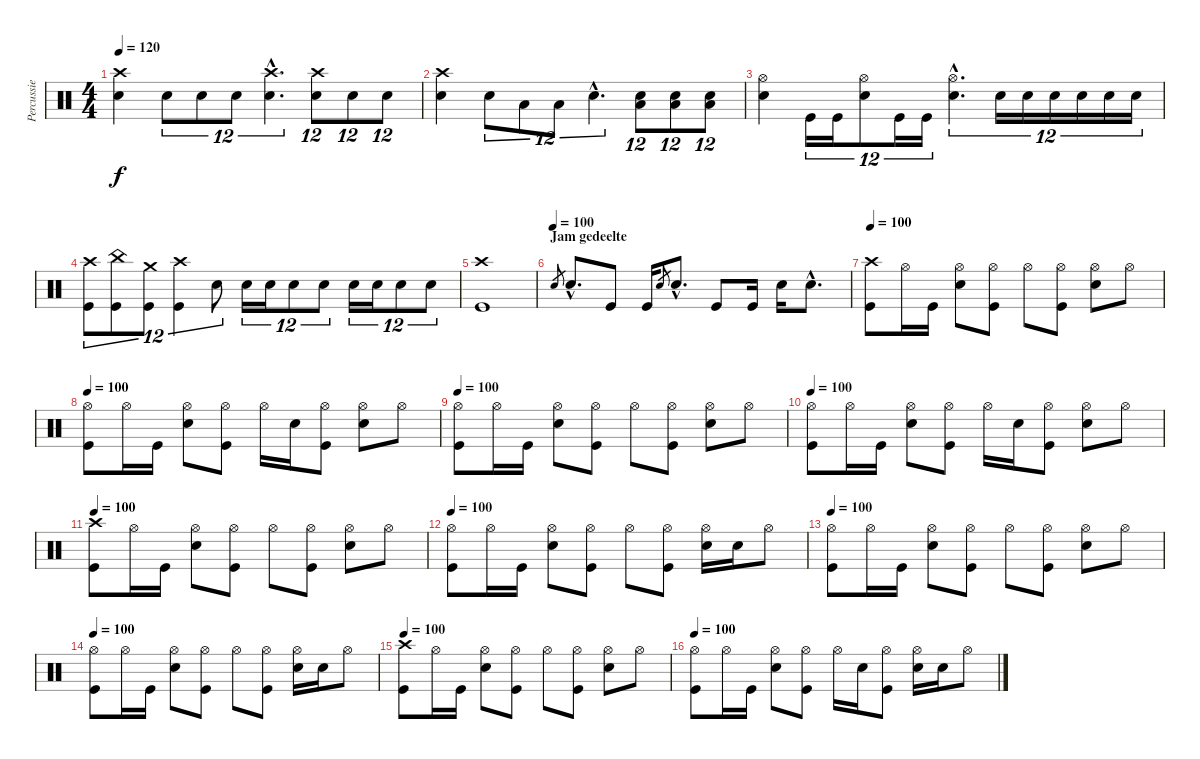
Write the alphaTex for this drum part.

\track ("Percussie" "Percussie") {instrument percussion}
\staff {score}
\articulation defaults
\ts (4 4)
\tempo 120
\clef neutral
\ks c
("Crash high (hit)" "Snare (hit) 2").4{dy f} "Snare (hit) 2".8{tu (12 8)} "Snare (hit) 2".8{tu (12 8)} "Snare (hit) 2".8{tu (12 8)} ("Crash high (hit)"{hac} "Snare (hit) 2"{hac}).4{d tu (12 8)} ("Crash high (hit)" "Snare (hit) 2").8{tu (12 8)} "Snare (hit) 2".8{tu (12 8)} "Snare (hit) 2".8{tu (12 8)} |
("Crash high (hit)" "Snare (hit) 2").4 "Snare (hit) 2".8{tu (12 8)} "Low Tom (hit)".8{tu (12 8)} "Low Tom (hit)".8{tu (12 8)} "Snare (hit) 2"{hac}.4{d tu (12 8)} ("Low Tom (hit)" "Snare (hit) 2").8{tu (12 8)} ("Low Tom (hit)" "Snare (hit) 2").8{tu (12 8)} ("Low Tom (hit)" "Snare (hit) 2").8{tu (12 8)} |
("Hi-Hat (open)" "Snare (hit) 2").4 "Kick (hit)".16{tu (12 8)} "Kick (hit)".16{tu (12 8)} ("Hi-Hat (open)" "Snare (hit) 2").8{tu (12 8)} "Kick (hit)".16{tu (12 8)} "Kick (hit)".16{tu (12 8)} ("Hi-Hat (open)"{hac} "Snare (hit) 2"{hac}).4{d tu (12 8)} "Snare (hit) 2".16{tu (12 8)} "Snare (hit) 2".16{tu (12 8)} "Snare (hit) 2".16{tu (12 8)} "Snare (hit) 2".16{tu (12 8)} "Snare (hit) 2".16{tu (12 8)} "Snare (hit) 2".16{tu (12 8)} |
("Crash high (hit)" "Kick (hit)").8{tu (12 8)} ("China (hit)" "Kick (hit)").8{tu (12 8)} ("Crash medium (hit)" "Kick (hit)").8{tu (12 8)} ("Crash high (hit)" "Kick (hit)").4{tu (12 8)} "Snare (hit) 2".8{tu (12 8)} "Snare (hit) 2".16{tu (12 8)} "Snare (hit) 2".16{tu (12 8)} "Snare (hit) 2".8{tu (12 8)} "Snare (hit) 2".8{tu (12 8)} "Snare (hit) 2".16{tu (12 8)} "Snare (hit) 2".16{tu (12 8)} "Snare (hit) 2".8{tu (12 8)} "Snare (hit) 2".8{tu (12 8)} |
("Crash high (hit)" "Kick (hit)").1 |
\section ("" "Jam gedeelte")
\tempo (100)
"Snare (hit) 2".8{gr} "Snare (hit) 2"{hac}.8{d} "Kick (hit)".8 "Kick (hit)".16 "Snare (hit) 2".8{gr} "Snare (hit) 2"{hac}.8{d} "Kick (hit)".8 "Kick (hit)".16 "Snare (hit) 2".16 "Snare (hit) 2"{hac}.8{d} |
\tempo 100
("Crash high (hit)" "Kick (hit)").8 "Hi-Hat (open)".16 "Kick (hit)".16 ("Hi-Hat (open)" "Snare (hit) 2").8 ("Hi-Hat (open)" "Kick (hit)").8 "Hi-Hat (open)".8 ("Hi-Hat (open)" "Kick (hit)").8 ("Hi-Hat (open)" "Snare (hit) 2").8 "Hi-Hat (open)".8 |
\tempo 100
("Hi-Hat (open)" "Kick (hit)").8 "Hi-Hat (open)".16 "Kick (hit)".16 ("Hi-Hat (open)" "Snare (hit) 2").8 ("Hi-Hat (open)" "Kick (hit)").8 "Hi-Hat (open)".16 "Snare (hit) 2".16 ("Hi-Hat (open)" "Kick (hit)").8 ("Hi-Hat (open)" "Snare (hit) 2").8 "Hi-Hat (open)".8 |
\tempo 100
("Hi-Hat (open)" "Kick (hit)").8 "Hi-Hat (open)".16 "Kick (hit)".16 ("Hi-Hat (open)" "Snare (hit) 2").8 ("Hi-Hat (open)" "Kick (hit)").8 "Hi-Hat (open)".8 ("Hi-Hat (open)" "Kick (hit)").8 ("Hi-Hat (open)" "Snare (hit) 2").8 "Hi-Hat (open)".8 |
\tempo 100
("Hi-Hat (open)" "Kick (hit)").8 "Hi-Hat (open)".16 "Kick (hit)".16 ("Hi-Hat (open)" "Snare (hit) 2").8 ("Hi-Hat (open)" "Kick (hit)").8 "Hi-Hat (open)".16 "Snare (hit) 2".16 ("Hi-Hat (open)" "Kick (hit)").8 ("Hi-Hat (open)" "Snare (hit) 2").8 "Hi-Hat (open)".8 |
\tempo 100
("Crash high (hit)" "Kick (hit)").8 "Hi-Hat (open)".16 "Kick (hit)".16 ("Hi-Hat (open)" "Snare (hit) 2").8 ("Hi-Hat (open)" "Kick (hit)").8 "Hi-Hat (open)".8 ("Hi-Hat (open)" "Kick (hit)").8 ("Hi-Hat (open)" "Snare (hit) 2").8 "Hi-Hat (open)".8 |
\tempo 100
("Hi-Hat (open)" "Kick (hit)").8 "Hi-Hat (open)".16 "Kick (hit)".16 ("Hi-Hat (open)" "Snare (hit) 2").8 ("Hi-Hat (open)" "Kick (hit)").8 "Hi-Hat (open)".8 ("Hi-Hat (open)" "Kick (hit)").8 ("Hi-Hat (open)" "Snare (hit) 2").16 "Snare (hit) 2".16 "Hi-Hat (open)".8 |
\tempo 100
("Hi-Hat (open)" "Kick (hit)").8 "Hi-Hat (open)".16 "Kick (hit)".16 ("Hi-Hat (open)" "Snare (hit) 2").8 ("Hi-Hat (open)" "Kick (hit)").8 "Hi-Hat (open)".8 ("Hi-Hat (open)" "Kick (hit)").8 ("Hi-Hat (open)" "Snare (hit) 2").8 "Hi-Hat (open)".8 |
\tempo 100
("Hi-Hat (open)" "Kick (hit)").8 "Hi-Hat (open)".16 "Kick (hit)".16 ("Hi-Hat (open)" "Snare (hit) 2").8 ("Hi-Hat (open)" "Kick (hit)").8 "Hi-Hat (open)".8 ("Hi-Hat (open)" "Kick (hit)").8 ("Hi-Hat (open)" "Snare (hit) 2").16 "Snare (hit) 2".16 "Hi-Hat (open)".8 |
\tempo 100
("Crash high (hit)" "Kick (hit)").8 "Hi-Hat (open)".16 "Kick (hit)".16 ("Hi-Hat (open)" "Snare (hit) 2").8 ("Hi-Hat (open)" "Kick (hit)").8 "Hi-Hat (open)".8 ("Hi-Hat (open)" "Kick (hit)").8 ("Hi-Hat (open)" "Snare (hit) 2").8 "Hi-Hat (open)".8 |
\tempo 100
("Hi-Hat (open)" "Kick (hit)").8 "Hi-Hat (open)".16 "Kick (hit)".16 ("Hi-Hat (open)" "Snare (hit) 2").8 ("Hi-Hat (open)" "Kick (hit)").8 "Hi-Hat (open)".16 "Snare (hit) 2".16 ("Hi-Hat (open)" "Kick (hit)").8 ("Hi-Hat (open)" "Snare (hit) 2").16 "Snare (hit) 2".16 "Hi-Hat (open)".8
